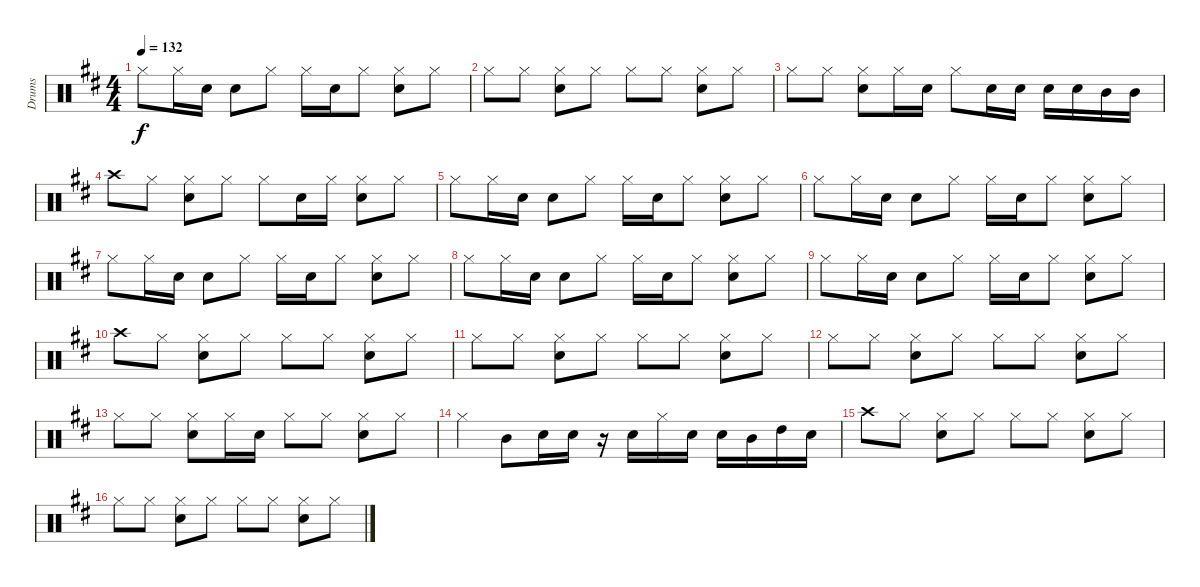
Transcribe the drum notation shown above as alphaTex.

\track ("Drums" "Drums") {instrument percussion}
\staff {score}
\articulation defaults
\ts (4 4)
\tempo 132
\clef neutral
\ks d "Hi-Hat (closed)".8{dy f} "Hi-Hat (closed)".16 "Snare (hit) 2".16 "Snare (hit) 2".8 "Hi-Hat (closed)".8 "Hi-Hat (closed)".16 "Snare (hit) 2".16 "Hi-Hat (closed)".8
("Hi-Hat (closed)" "Snare (hit) 2").8 "Hi-Hat (closed)".8 |
"Hi-Hat (closed)".8 "Hi-Hat (closed)".8 ("Hi-Hat (closed)" "Snare (hit) 2").8 "Hi-Hat (closed)".8 "Hi-Hat (closed)".8 "Hi-Hat (closed)".8 ("Hi-Hat (closed)" "Snare (hit) 2").8 "Hi-Hat (closed)".8 |
"Hi-Hat (closed)".8 "Hi-Hat (closed)".8 ("Hi-Hat (closed)" "Snare (hit) 2").8 "Hi-Hat (closed)".16 "Snare (hit) 2".16 "Hi-Hat (closed)".8 "Snare (hit) 2".16 "Snare (hit) 2".16 "Snare (hit) 2".16 "Snare (hit) 2".16 "Mid Tom (hit)".16 "Mid Tom (hit)".16 |
"Crash high (hit)".8 "Hi-Hat (closed)".8 ("Hi-Hat (closed)" "Snare (hit) 2").8 "Hi-Hat (closed)".8 "Hi-Hat (closed)".8 "Snare (hit) 2".16 "Hi-Hat (closed)".16 ("Hi-Hat (closed)" "Snare (hit) 2").8 "Hi-Hat (closed)".8 |
"Hi-Hat (closed)".8 "Hi-Hat (closed)".16 "Snare (hit) 2".16 "Snare (hit) 2".8 "Hi-Hat (closed)".8 "Hi-Hat (closed)".16 "Snare (hit) 2".16 "Hi-Hat (closed)".8 ("Hi-Hat (closed)" "Snare (hit) 2").8 "Hi-Hat (closed)".8 |
"Hi-Hat (closed)".8 "Hi-Hat (closed)".16 "Snare (hit) 2".16 "Snare (hit) 2".8 "Hi-Hat (closed)".8 "Hi-Hat (closed)".16 "Snare (hit) 2".16 "Hi-Hat (closed)".8 ("Hi-Hat (closed)" "Snare (hit) 2").8 "Hi-Hat (closed)".8 |
"Hi-Hat (closed)".8 "Hi-Hat (closed)".16 "Snare (hit) 2".16 "Snare (hit) 2".8 "Hi-Hat (closed)".8 "Hi-Hat (closed)".16 "Snare (hit) 2".16 "Hi-Hat (closed)".8 ("Hi-Hat (closed)" "Snare (hit) 2").8 "Hi-Hat (closed)".8 |
"Hi-Hat (closed)".8 "Hi-Hat (closed)".16 "Snare (hit) 2".16 "Snare (hit) 2".8 "Hi-Hat (closed)".8 "Hi-Hat (closed)".16 "Snare (hit) 2".16 "Hi-Hat (closed)".8 ("Hi-Hat (closed)" "Snare (hit) 2").8 "Hi-Hat (closed)".8 |
"Hi-Hat (closed)".8 "Hi-Hat (closed)".16 "Snare (hit) 2".16 "Snare (hit) 2".8 "Hi-Hat (closed)".8 "Hi-Hat (closed)".16 "Snare (hit) 2".16 "Hi-Hat (closed)".8 ("Hi-Hat (closed)" "Snare (hit) 2").8 "Hi-Hat (closed)".8 |
"Crash high (hit)".8 "Hi-Hat (closed)".8 ("Hi-Hat (closed)" "Snare (hit) 2").8 "Hi-Hat (closed)".8 "Hi-Hat (closed)".8 "Hi-Hat (closed)".8 ("Hi-Hat (closed)" "Snare (hit) 2").8 "Hi-Hat (closed)".8 |
"Hi-Hat (closed)".8 "Hi-Hat (closed)".8 ("Hi-Hat (closed)" "Snare (hit) 2").8 "Hi-Hat (closed)".8 "Hi-Hat (closed)".8 "Hi-Hat (closed)".8 ("Hi-Hat (closed)" "Snare (hit) 2").8 "Hi-Hat (closed)".8 |
"Hi-Hat (closed)".8 "Hi-Hat (closed)".8 ("Hi-Hat (closed)" "Snare (hit) 2").8 "Hi-Hat (closed)".8 "Hi-Hat (closed)".8 "Hi-Hat (closed)".8 ("Hi-Hat (closed)" "Snare (hit) 2").8 "Hi-Hat (closed)".8 |
"Hi-Hat (closed)".8 "Hi-Hat (closed)".8 ("Hi-Hat (closed)" "Snare (hit) 2").8 "Hi-Hat (closed)".16 "Snare (hit) 2".16 "Hi-Hat (closed)".8 "Hi-Hat (closed)".8 ("Hi-Hat (closed)" "Snare (hit) 2").8 "Hi-Hat (closed)".8 |
"Hi-Hat (closed)".4 "Mid Tom (hit)".8 "Snare (hit) 2".16 "Snare (hit) 2".16 r.16 "Snare (hit) 2".16 "Hi-Hat (closed)".16 "Snare (hit) 2".16 "Snare (hit) 2".16 "Mid Tom (hit)".16 "High Tom (hit)".16 "Snare (hit) 2".16 |
"Crash high (hit)".8 "Hi-Hat (closed)".8 ("Hi-Hat (closed)" "Snare (hit) 2").8 "Hi-Hat (closed)".8 "Hi-Hat (closed)".8 "Hi-Hat (closed)".8 ("Hi-Hat (closed)" "Snare (hit) 2").8 "Hi-Hat (closed)".8 |
"Hi-Hat (closed)".8 "Hi-Hat (closed)".8 ("Hi-Hat (closed)" "Snare (hit) 2").8 "Hi-Hat (closed)".8 "Hi-Hat (closed)".8 "Hi-Hat (closed)".8 ("Hi-Hat (closed)" "Snare (hit) 2").8 "Hi-Hat (closed)".8
